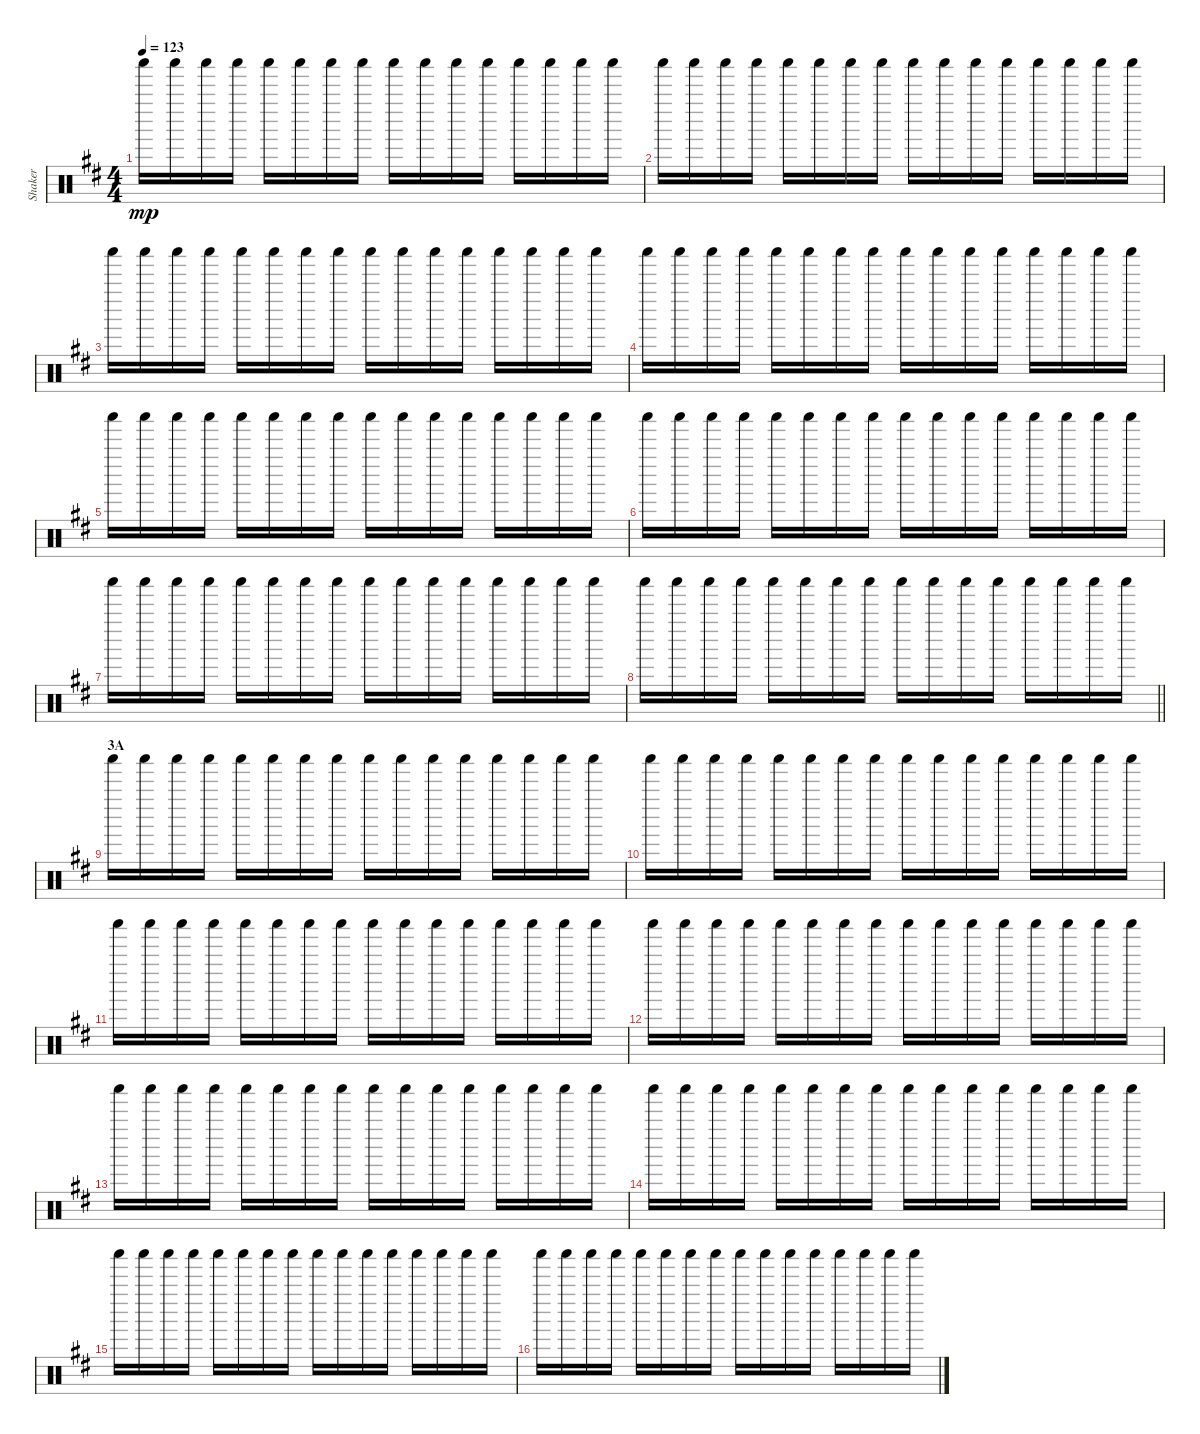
\track ("Shaker" "Shaker") {instrument percussion}
\staff {score}
\articulation defaults
\ts (4 4)
\tempo 123
\clef neutral
\ks d "Shaker (hit)".16{dy mp} "Shaker (hit)".16 "Shaker (hit)".16 "Shaker (hit)".16 "Shaker (hit)".16 "Shaker (hit)".16 "Shaker (hit)".16 "Shaker (hit)".16 "Shaker (hit)".16 "Shaker (hit)".16 "Shaker (hit)".16 "Shaker (hit)".16 "Shaker (hit)".16 "Shaker (hit)".16 "Shaker (hit)".16 "Shaker (hit)".16
|
"Shaker (hit)".16 "Shaker (hit)".16 "Shaker (hit)".16 "Shaker (hit)".16 "Shaker (hit)".16 "Shaker (hit)".16 "Shaker (hit)".16 "Shaker (hit)".16 "Shaker (hit)".16 "Shaker (hit)".16 "Shaker (hit)".16 "Shaker (hit)".16 "Shaker (hit)".16 "Shaker (hit)".16 "Shaker (hit)".16 "Shaker (hit)".16 |
"Shaker (hit)".16 "Shaker (hit)".16 "Shaker (hit)".16 "Shaker (hit)".16 "Shaker (hit)".16 "Shaker (hit)".16 "Shaker (hit)".16 "Shaker (hit)".16 "Shaker (hit)".16 "Shaker (hit)".16 "Shaker (hit)".16 "Shaker (hit)".16 "Shaker (hit)".16 "Shaker (hit)".16 "Shaker (hit)".16 "Shaker (hit)".16 |
"Shaker (hit)".16 "Shaker (hit)".16 "Shaker (hit)".16 "Shaker (hit)".16 "Shaker (hit)".16 "Shaker (hit)".16 "Shaker (hit)".16 "Shaker (hit)".16 "Shaker (hit)".16 "Shaker (hit)".16 "Shaker (hit)".16 "Shaker (hit)".16 "Shaker (hit)".16 "Shaker (hit)".16 "Shaker (hit)".16 "Shaker (hit)".16 |
"Shaker (hit)".16 "Shaker (hit)".16 "Shaker (hit)".16 "Shaker (hit)".16 "Shaker (hit)".16 "Shaker (hit)".16 "Shaker (hit)".16 "Shaker (hit)".16 "Shaker (hit)".16 "Shaker (hit)".16 "Shaker (hit)".16 "Shaker (hit)".16 "Shaker (hit)".16 "Shaker (hit)".16 "Shaker (hit)".16 "Shaker (hit)".16 |
"Shaker (hit)".16 "Shaker (hit)".16 "Shaker (hit)".16 "Shaker (hit)".16 "Shaker (hit)".16 "Shaker (hit)".16 "Shaker (hit)".16 "Shaker (hit)".16 "Shaker (hit)".16 "Shaker (hit)".16 "Shaker (hit)".16 "Shaker (hit)".16 "Shaker (hit)".16 "Shaker (hit)".16 "Shaker (hit)".16 "Shaker (hit)".16 |
"Shaker (hit)".16 "Shaker (hit)".16 "Shaker (hit)".16 "Shaker (hit)".16 "Shaker (hit)".16 "Shaker (hit)".16 "Shaker (hit)".16 "Shaker (hit)".16 "Shaker (hit)".16 "Shaker (hit)".16 "Shaker (hit)".16 "Shaker (hit)".16 "Shaker (hit)".16 "Shaker (hit)".16 "Shaker (hit)".16 "Shaker (hit)".16 |
\barLineRight lightlight "Shaker (hit)".16 "Shaker (hit)".16 "Shaker (hit)".16 "Shaker (hit)".16 "Shaker (hit)".16 "Shaker (hit)".16 "Shaker (hit)".16 "Shaker (hit)".16 "Shaker (hit)".16 "Shaker (hit)".16 "Shaker (hit)".16 "Shaker (hit)".16 "Shaker (hit)".16 "Shaker (hit)".16 "Shaker (hit)".16 "Shaker (hit)".16
|
\section ("" "3A")
"Shaker (hit)".16 "Shaker (hit)".16 "Shaker (hit)".16 "Shaker (hit)".16 "Shaker (hit)".16 "Shaker (hit)".16 "Shaker (hit)".16 "Shaker (hit)".16 "Shaker (hit)".16 "Shaker (hit)".16 "Shaker (hit)".16 "Shaker (hit)".16 "Shaker (hit)".16 "Shaker (hit)".16 "Shaker (hit)".16 "Shaker (hit)".16 |
"Shaker (hit)".16 "Shaker (hit)".16 "Shaker (hit)".16 "Shaker (hit)".16 "Shaker (hit)".16 "Shaker (hit)".16 "Shaker (hit)".16 "Shaker (hit)".16 "Shaker (hit)".16 "Shaker (hit)".16 "Shaker (hit)".16 "Shaker (hit)".16 "Shaker (hit)".16 "Shaker (hit)".16 "Shaker (hit)".16 "Shaker (hit)".16 |
"Shaker (hit)".16 "Shaker (hit)".16 "Shaker (hit)".16 "Shaker (hit)".16 "Shaker (hit)".16 "Shaker (hit)".16 "Shaker (hit)".16 "Shaker (hit)".16 "Shaker (hit)".16 "Shaker (hit)".16 "Shaker (hit)".16 "Shaker (hit)".16 "Shaker (hit)".16 "Shaker (hit)".16 "Shaker (hit)".16 "Shaker (hit)".16 |
"Shaker (hit)".16 "Shaker (hit)".16 "Shaker (hit)".16 "Shaker (hit)".16 "Shaker (hit)".16 "Shaker (hit)".16 "Shaker (hit)".16 "Shaker (hit)".16 "Shaker (hit)".16 "Shaker (hit)".16 "Shaker (hit)".16 "Shaker (hit)".16 "Shaker (hit)".16 "Shaker (hit)".16 "Shaker (hit)".16 "Shaker (hit)".16 |
"Shaker (hit)".16 "Shaker (hit)".16 "Shaker (hit)".16 "Shaker (hit)".16 "Shaker (hit)".16 "Shaker (hit)".16 "Shaker (hit)".16 "Shaker (hit)".16 "Shaker (hit)".16 "Shaker (hit)".16 "Shaker (hit)".16 "Shaker (hit)".16 "Shaker (hit)".16 "Shaker (hit)".16 "Shaker (hit)".16 "Shaker (hit)".16 |
"Shaker (hit)".16 "Shaker (hit)".16 "Shaker (hit)".16 "Shaker (hit)".16 "Shaker (hit)".16 "Shaker (hit)".16 "Shaker (hit)".16 "Shaker (hit)".16 "Shaker (hit)".16 "Shaker (hit)".16 "Shaker (hit)".16 "Shaker (hit)".16 "Shaker (hit)".16 "Shaker (hit)".16 "Shaker (hit)".16 "Shaker (hit)".16 |
"Shaker (hit)".16 "Shaker (hit)".16 "Shaker (hit)".16 "Shaker (hit)".16 "Shaker (hit)".16 "Shaker (hit)".16 "Shaker (hit)".16 "Shaker (hit)".16 "Shaker (hit)".16 "Shaker (hit)".16 "Shaker (hit)".16 "Shaker (hit)".16 "Shaker (hit)".16 "Shaker (hit)".16 "Shaker (hit)".16 "Shaker (hit)".16 |
"Shaker (hit)".16 "Shaker (hit)".16 "Shaker (hit)".16 "Shaker (hit)".16 "Shaker (hit)".16 "Shaker (hit)".16 "Shaker (hit)".16 "Shaker (hit)".16 "Shaker (hit)".16 "Shaker (hit)".16 "Shaker (hit)".16 "Shaker (hit)".16 "Shaker (hit)".16 "Shaker (hit)".16 "Shaker (hit)".16 "Shaker (hit)".16
